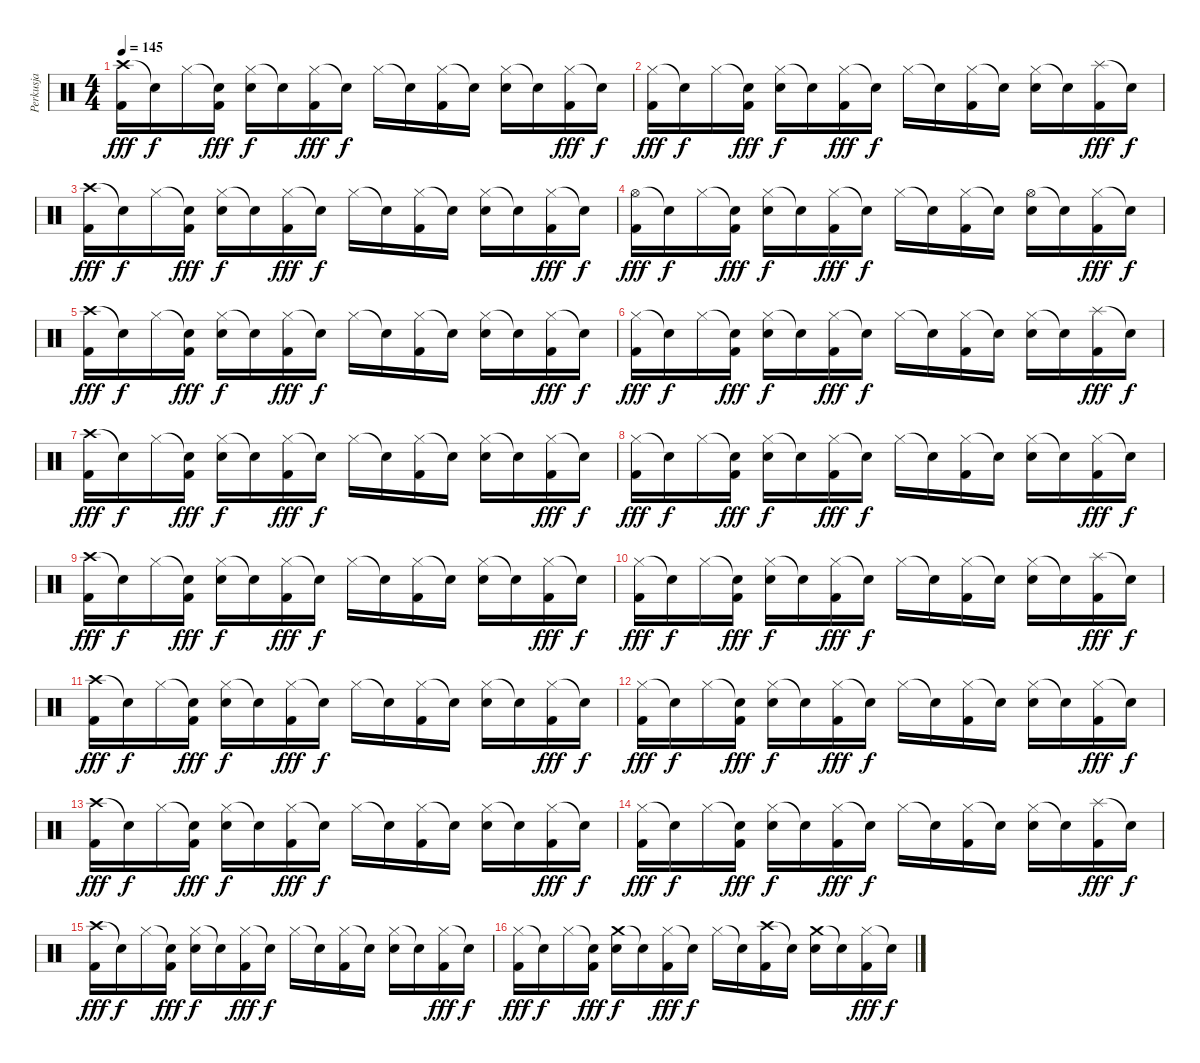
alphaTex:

\track ("Perkusja" "Perkusja") {instrument percussion}
\staff {score}
\articulation defaults
\ts (4 4)
\tempo 145
\clef neutral
\ks c
("Crash high (hit)" "Kick (hit) 2").16{dy fff} "Snare (hit)"{t}.16{dy f} "Hi-Hat (closed)".16 ("Snare (hit)"{t} "Kick (hit) 2").16{dy fff} ("Hi-Hat (closed)" "Electric Snare (hit)").16{dy f} "Snare (hit)"{t}.16 ("Hi-Hat (closed)" "Kick (hit) 2").16{dy fff} "Snare (hit)"{t}.16{dy f} "Hi-Hat (closed)".16 "Snare (hit)"{t}.16 ("Hi-Hat (closed)" "Kick (hit) 2").16 "Snare (hit)"{t}.16 ("Hi-Hat (closed)" "Electric Snare (hit)").16 "Snare (hit)"{t}.16 ("Hi-Hat (closed)" "Kick (hit) 2").16{dy fff} "Snare (hit)"{t}.16{dy f} |
("Hi-Hat (closed)" "Kick (hit) 2").16{dy fff} "Snare (hit)"{t}.16{dy f} "Hi-Hat (closed)".16 ("Snare (hit)"{t} "Kick (hit) 2").16{dy fff} ("Hi-Hat (closed)" "Electric Snare (hit)").16{dy f} "Snare (hit)"{t}.16 ("Hi-Hat (closed)" "Kick (hit) 2").16{dy fff} "Snare (hit)"{t}.16{dy f} "Hi-Hat (closed)".16 "Snare (hit)"{t}.16 ("Hi-Hat (closed)" "Kick (hit) 2").16 "Snare (hit)"{t}.16 ("Hi-Hat (closed)" "Electric Snare (hit)").16 "Snare (hit)"{t}.16 ("Splash (hit)" "Kick (hit) 2").16{dy fff} "Snare (hit)"{t}.16{dy f} |
("Crash high (hit)" "Kick (hit) 2").16{dy fff} "Snare (hit)"{t}.16{dy f} "Hi-Hat (closed)".16 ("Snare (hit)"{t} "Kick (hit) 2").16{dy fff} ("Hi-Hat (closed)" "Electric Snare (hit)").16{dy f} "Snare (hit)"{t}.16 ("Hi-Hat (closed)" "Kick (hit) 2").16{dy fff} "Snare (hit)"{t}.16{dy f} "Hi-Hat (closed)".16 "Snare (hit)"{t}.16 ("Hi-Hat (closed)" "Kick (hit) 2").16 "Snare (hit)"{t}.16 ("Hi-Hat (closed)" "Electric Snare (hit)").16 "Snare (hit)"{t}.16 ("Hi-Hat (closed)" "Kick (hit) 2").16{dy fff} "Snare (hit)"{t}.16{dy f} |
("Hi-Hat (open)" "Kick (hit) 2").16{dy fff} "Snare (hit)"{t}.16{dy f} "Hi-Hat (closed)".16 ("Snare (hit)"{t} "Kick (hit) 2").16{dy fff} ("Hi-Hat (closed)" "Electric Snare (hit)").16{dy f} "Snare (hit)"{t}.16 ("Hi-Hat (closed)" "Kick (hit) 2").16{dy fff} "Snare (hit)"{t}.16{dy f} "Hi-Hat (closed)".16 "Snare (hit)"{t}.16 ("Hi-Hat (closed)" "Kick (hit) 2").16 "Snare (hit)"{t}.16 ("Hi-Hat (open)" "Electric Snare (hit)").16 "Snare (hit)"{t}.16 ("Hi-Hat (closed)" "Kick (hit) 2").16{dy fff} "Snare (hit)"{t}.16{dy f} |
("Crash high (hit)" "Kick (hit) 2").16{dy fff} "Snare (hit)"{t}.16{dy f} "Hi-Hat (closed)".16 ("Snare (hit)"{t} "Kick (hit) 2").16{dy fff} ("Hi-Hat (closed)" "Electric Snare (hit)").16{dy f} "Snare (hit)"{t}.16 ("Hi-Hat (closed)" "Kick (hit) 2").16{dy fff} "Snare (hit)"{t}.16{dy f} "Hi-Hat (closed)".16 "Snare (hit)"{t}.16 ("Hi-Hat (closed)" "Kick (hit) 2").16 "Snare (hit)"{t}.16 ("Hi-Hat (closed)" "Electric Snare (hit)").16 "Snare (hit)"{t}.16 ("Hi-Hat (closed)" "Kick (hit) 2").16{dy fff} "Snare (hit)"{t}.16{dy f} |
("Hi-Hat (closed)" "Kick (hit) 2").16{dy fff} "Snare (hit)"{t}.16{dy f} "Hi-Hat (closed)".16 ("Snare (hit)"{t} "Kick (hit) 2").16{dy fff} ("Hi-Hat (closed)" "Electric Snare (hit)").16{dy f} "Snare (hit)"{t}.16 ("Hi-Hat (closed)" "Kick (hit) 2").16{dy fff} "Snare (hit)"{t}.16{dy f} "Hi-Hat (closed)".16 "Snare (hit)"{t}.16 ("Hi-Hat (closed)" "Kick (hit) 2").16 "Snare (hit)"{t}.16 ("Hi-Hat (closed)" "Electric Snare (hit)").16 "Snare (hit)"{t}.16 ("Splash (hit)" "Kick (hit) 2").16{dy fff} "Snare (hit)"{t}.16{dy f} |
("Crash high (hit)" "Kick (hit) 2").16{dy fff} "Snare (hit)"{t}.16{dy f} "Hi-Hat (closed)".16 ("Snare (hit)"{t} "Kick (hit) 2").16{dy fff} ("Hi-Hat (closed)" "Electric Snare (hit)").16{dy f} "Snare (hit)"{t}.16 ("Hi-Hat (closed)" "Kick (hit) 2").16{dy fff} "Snare (hit)"{t}.16{dy f} "Hi-Hat (closed)".16 "Snare (hit)"{t}.16 ("Hi-Hat (closed)" "Kick (hit) 2").16 "Snare (hit)"{t}.16 ("Hi-Hat (closed)" "Electric Snare (hit)").16 "Snare (hit)"{t}.16 ("Hi-Hat (closed)" "Kick (hit) 2").16{dy fff} "Snare (hit)"{t}.16{dy f} |
("Hi-Hat (closed)" "Kick (hit) 2").16{dy fff} "Snare (hit)"{t}.16{dy f} "Hi-Hat (closed)".16 ("Snare (hit)"{t} "Kick (hit) 2").16{dy fff} ("Hi-Hat (closed)" "Electric Snare (hit)").16{dy f} "Snare (hit)"{t}.16 ("Hi-Hat (closed)" "Kick (hit) 2").16{dy fff} "Snare (hit)"{t}.16{dy f} "Hi-Hat (closed)".16 "Snare (hit)"{t}.16 ("Hi-Hat (closed)" "Kick (hit) 2").16 "Snare (hit)"{t}.16 ("Hi-Hat (closed)" "Electric Snare (hit)").16 "Snare (hit)"{t}.16 ("Hi-Hat (closed)" "Kick (hit) 2").16{dy fff} "Snare (hit)"{t}.16{dy f} |
("Crash high (hit)" "Kick (hit) 2").16{dy fff} "Snare (hit)"{t}.16{dy f} "Hi-Hat (closed)".16 ("Snare (hit)"{t} "Kick (hit) 2").16{dy fff} ("Hi-Hat (closed)" "Electric Snare (hit)").16{dy f} "Snare (hit)"{t}.16 ("Hi-Hat (closed)" "Kick (hit) 2").16{dy fff} "Snare (hit)"{t}.16{dy f} "Hi-Hat (closed)".16 "Snare (hit)"{t}.16 ("Hi-Hat (closed)" "Kick (hit) 2").16 "Snare (hit)"{t}.16 ("Hi-Hat (closed)" "Electric Snare (hit)").16 "Snare (hit)"{t}.16 ("Hi-Hat (closed)" "Kick (hit) 2").16{dy fff} "Snare (hit)"{t}.16{dy f} |
("Hi-Hat (closed)" "Kick (hit) 2").16{dy fff} "Snare (hit)"{t}.16{dy f} "Hi-Hat (closed)".16 ("Snare (hit)"{t} "Kick (hit) 2").16{dy fff} ("Hi-Hat (closed)" "Electric Snare (hit)").16{dy f} "Snare (hit)"{t}.16 ("Hi-Hat (closed)" "Kick (hit) 2").16{dy fff} "Snare (hit)"{t}.16{dy f} "Hi-Hat (closed)".16 "Snare (hit)"{t}.16 ("Hi-Hat (closed)" "Kick (hit) 2").16 "Snare (hit)"{t}.16 ("Hi-Hat (closed)" "Electric Snare (hit)").16 "Snare (hit)"{t}.16 ("Splash (hit)" "Kick (hit) 2").16{dy fff} "Snare (hit)"{t}.16{dy f} |
("Crash high (hit)" "Kick (hit) 2").16{dy fff} "Snare (hit)"{t}.16{dy f} "Hi-Hat (closed)".16 ("Snare (hit)"{t} "Kick (hit) 2").16{dy fff} ("Hi-Hat (closed)" "Electric Snare (hit)").16{dy f} "Snare (hit)"{t}.16 ("Hi-Hat (closed)" "Kick (hit) 2").16{dy fff} "Snare (hit)"{t}.16{dy f} "Hi-Hat (closed)".16 "Snare (hit)"{t}.16 ("Hi-Hat (closed)" "Kick (hit) 2").16 "Snare (hit)"{t}.16 ("Hi-Hat (closed)" "Electric Snare (hit)").16 "Snare (hit)"{t}.16 ("Hi-Hat (closed)" "Kick (hit) 2").16{dy fff} "Snare (hit)"{t}.16{dy f} |
("Hi-Hat (closed)" "Kick (hit) 2").16{dy fff} "Snare (hit)"{t}.16{dy f} "Hi-Hat (closed)".16 ("Snare (hit)"{t} "Kick (hit) 2").16{dy fff} ("Hi-Hat (closed)" "Electric Snare (hit)").16{dy f} "Snare (hit)"{t}.16 ("Hi-Hat (closed)" "Kick (hit) 2").16{dy fff} "Snare (hit)"{t}.16{dy f} "Hi-Hat (closed)".16 "Snare (hit)"{t}.16 ("Hi-Hat (closed)" "Kick (hit) 2").16 "Snare (hit)"{t}.16 ("Hi-Hat (closed)" "Electric Snare (hit)").16 "Snare (hit)"{t}.16 ("Hi-Hat (closed)" "Kick (hit) 2").16{dy fff} "Snare (hit)"{t}.16{dy f} |
("Crash high (hit)" "Kick (hit) 2").16{dy fff} "Snare (hit)"{t}.16{dy f} "Hi-Hat (closed)".16 ("Snare (hit)"{t} "Kick (hit) 2").16{dy fff} ("Hi-Hat (closed)" "Electric Snare (hit)").16{dy f} "Snare (hit)"{t}.16 ("Hi-Hat (closed)" "Kick (hit) 2").16{dy fff} "Snare (hit)"{t}.16{dy f} "Hi-Hat (closed)".16 "Snare (hit)"{t}.16 ("Hi-Hat (closed)" "Kick (hit) 2").16 "Snare (hit)"{t}.16 ("Hi-Hat (closed)" "Electric Snare (hit)").16 "Snare (hit)"{t}.16 ("Hi-Hat (closed)" "Kick (hit) 2").16{dy fff} "Snare (hit)"{t}.16{dy f} |
("Hi-Hat (closed)" "Kick (hit) 2").16{dy fff} "Snare (hit)"{t}.16{dy f} "Hi-Hat (closed)".16 ("Snare (hit)"{t} "Kick (hit) 2").16{dy fff} ("Hi-Hat (closed)" "Electric Snare (hit)").16{dy f} "Snare (hit)"{t}.16 ("Hi-Hat (closed)" "Kick (hit) 2").16{dy fff} "Snare (hit)"{t}.16{dy f} "Hi-Hat (closed)".16 "Snare (hit)"{t}.16 ("Hi-Hat (closed)" "Kick (hit) 2").16 "Snare (hit)"{t}.16 ("Hi-Hat (closed)" "Electric Snare (hit)").16 "Snare (hit)"{t}.16 ("Splash (hit)" "Kick (hit) 2").16{dy fff} "Snare (hit)"{t}.16{dy f} |
("Crash high (hit)" "Kick (hit) 2").16{dy fff} "Snare (hit)"{t}.16{dy f} "Hi-Hat (closed)".16 ("Snare (hit)"{t} "Kick (hit) 2").16{dy fff} ("Hi-Hat (closed)" "Electric Snare (hit)").16{dy f} "Snare (hit)"{t}.16 ("Hi-Hat (closed)" "Kick (hit) 2").16{dy fff} "Snare (hit)"{t}.16{dy f} "Hi-Hat (closed)".16 "Snare (hit)"{t}.16 ("Hi-Hat (closed)" "Kick (hit) 2").16 "Snare (hit)"{t}.16 ("Hi-Hat (closed)" "Electric Snare (hit)").16 "Snare (hit)"{t}.16 ("Hi-Hat (closed)" "Kick (hit) 2").16{dy fff} "Snare (hit)"{t}.16{dy f} |
("Hi-Hat (closed)" "Kick (hit) 2").16{dy fff} "Snare (hit)"{t}.16{dy f} "Hi-Hat (closed)".16 ("Snare (hit)"{t} "Kick (hit) 2").16{dy fff} ("Crash medium (hit)" "Electric Snare (hit)").16{dy f} "Snare (hit)"{t}.16 ("Hi-Hat (closed)" "Kick (hit) 2").16{dy fff} "Snare (hit)"{t}.16{dy f} "Hi-Hat (closed)".16 "Snare (hit)"{t}.16 ("Crash high (hit)" "Kick (hit) 2").16 "Snare (hit)"{t}.16 ("Crash medium (hit)" "Electric Snare (hit)").16 "Snare (hit)"{t}.16 ("Hi-Hat (closed)" "Kick (hit) 2").16{dy fff} "Snare (hit)"{t}.16{dy f}
